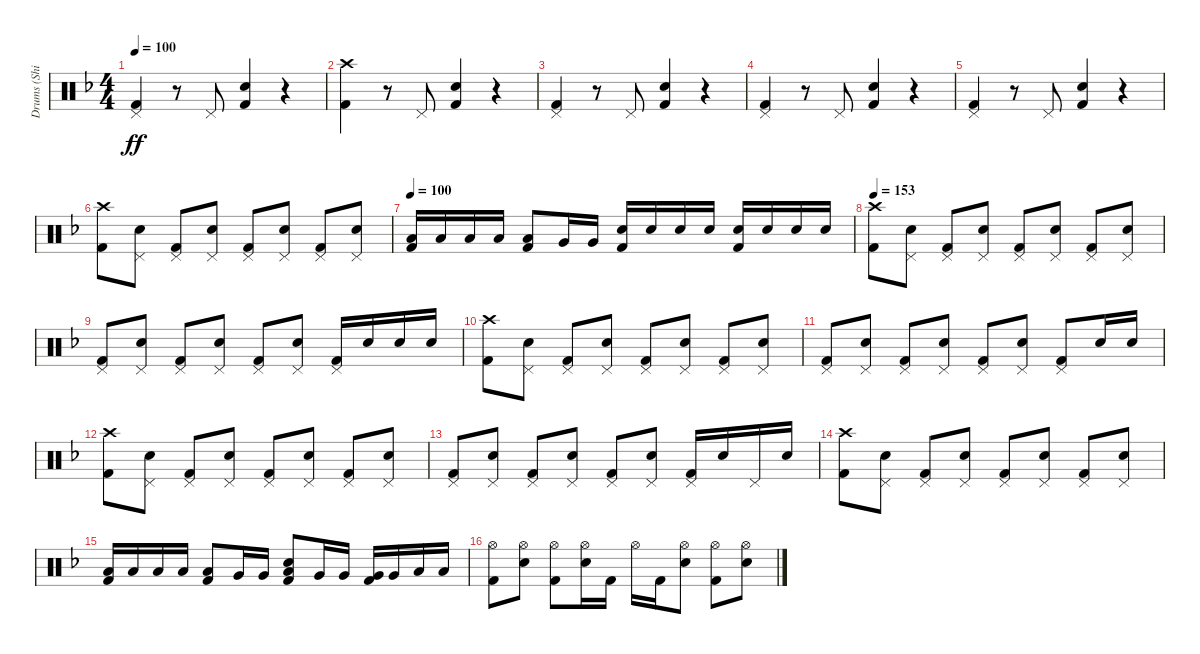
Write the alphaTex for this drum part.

\track ("Drums (Shinya ! Shinya !)" "Drums (Shi") {instrument percussion}
\staff {score}
\articulation defaults
\ts (4 4)
\tempo 100
\clef neutral
\ks f
("Kick (hit) 2" "Pedal Hi-Hat (hit)").4{dy ff} r.8 "Pedal Hi-Hat (hit)".8 ("Kick (hit) 2" "Electric Snare (hit)").4 r.4 |
("Kick (hit) 2" "Crash high (hit)").4 r.8 "Pedal Hi-Hat (hit)".8 ("Kick (hit) 2" "Electric Snare (hit)").4 r.4 |
("Kick (hit) 2" "Pedal Hi-Hat (hit)").4 r.8 "Pedal Hi-Hat (hit)".8 ("Kick (hit) 2" "Electric Snare (hit)").4 r.4 |
("Kick (hit) 2" "Pedal Hi-Hat (hit)").4 r.8 "Pedal Hi-Hat (hit)".8 ("Kick (hit) 2" "Electric Snare (hit)").4 r.4 |
("Kick (hit) 2" "Pedal Hi-Hat (hit)").4 r.8 "Pedal Hi-Hat (hit)".8 ("Kick (hit) 2" "Electric Snare (hit)").4 r.4 |
("Crash high (hit)" "Kick (hit) 2").8 ("Pedal Hi-Hat (hit)" "Electric Snare (hit)").8 ("Pedal Hi-Hat (hit)" "Kick (hit) 2").8 ("Pedal Hi-Hat (hit)" "Electric Snare (hit)").8 ("Pedal Hi-Hat (hit)" "Kick (hit) 2").8 ("Pedal Hi-Hat (hit)" "Electric Snare (hit)").8 ("Pedal Hi-Hat (hit)" "Kick (hit) 2").8 ("Pedal Hi-Hat (hit)" "Electric Snare (hit)").8 |
\tempo 100
("Low Tom (hit)" "Kick (hit) 2").16 "Low Tom (hit)".16 "Low Tom (hit)".16 "Low Tom (hit)".16 ("Low Tom (hit)" "Kick (hit) 2").8 "Very Low Tom (hit)".16 "Very Low Tom (hit)".16 ("Kick (hit) 2" "Electric Snare (hit)").16 "Electric Snare (hit)".16 "Electric Snare (hit)".16 "Electric Snare (hit)".16 ("Kick (hit) 2" "Electric Snare (hit)").16 "Electric Snare (hit)".16 "Electric Snare (hit)".16 "Electric Snare (hit)".16 |
\tempo 153
("Crash high (hit)" "Kick (hit) 2").8 ("Pedal Hi-Hat (hit)" "Electric Snare (hit)").8 ("Pedal Hi-Hat (hit)" "Kick (hit) 2").8 ("Pedal Hi-Hat (hit)" "Electric Snare (hit)").8 ("Pedal Hi-Hat (hit)" "Kick (hit) 2").8 ("Pedal Hi-Hat (hit)" "Electric Snare (hit)").8 ("Pedal Hi-Hat (hit)" "Kick (hit) 2").8 ("Pedal Hi-Hat (hit)" "Electric Snare (hit)").8 |
("Pedal Hi-Hat (hit)" "Kick (hit) 2").8 ("Pedal Hi-Hat (hit)" "Electric Snare (hit)").8 ("Pedal Hi-Hat (hit)" "Kick (hit) 2").8 ("Pedal Hi-Hat (hit)" "Electric Snare (hit)").8 ("Pedal Hi-Hat (hit)" "Kick (hit) 2").8 ("Pedal Hi-Hat (hit)" "Electric Snare (hit)").8 ("Pedal Hi-Hat (hit)" "Kick (hit) 2").16 "Electric Snare (hit)".16 "Electric Snare (hit)".16 "Electric Snare (hit)".16 |
("Crash high (hit)" "Kick (hit) 2").8 ("Pedal Hi-Hat (hit)" "Electric Snare (hit)").8 ("Pedal Hi-Hat (hit)" "Kick (hit) 2").8 ("Pedal Hi-Hat (hit)" "Electric Snare (hit)").8 ("Pedal Hi-Hat (hit)" "Kick (hit) 2").8 ("Pedal Hi-Hat (hit)" "Electric Snare (hit)").8 ("Pedal Hi-Hat (hit)" "Kick (hit) 2").8 ("Pedal Hi-Hat (hit)" "Electric Snare (hit)").8 |
("Pedal Hi-Hat (hit)" "Kick (hit) 2").8 ("Pedal Hi-Hat (hit)" "Electric Snare (hit)").8 ("Pedal Hi-Hat (hit)" "Kick (hit) 2").8 ("Pedal Hi-Hat (hit)" "Electric Snare (hit)").8 ("Pedal Hi-Hat (hit)" "Kick (hit) 2").8 ("Pedal Hi-Hat (hit)" "Electric Snare (hit)").8 ("Pedal Hi-Hat (hit)" "Kick (hit) 2").8 "Electric Snare (hit)".16 "Electric Snare (hit)".16 |
("Crash high (hit)" "Kick (hit) 2").8 ("Pedal Hi-Hat (hit)" "Electric Snare (hit)").8 ("Pedal Hi-Hat (hit)" "Kick (hit) 2").8 ("Pedal Hi-Hat (hit)" "Electric Snare (hit)").8 ("Pedal Hi-Hat (hit)" "Kick (hit) 2").8 ("Pedal Hi-Hat (hit)" "Electric Snare (hit)").8 ("Pedal Hi-Hat (hit)" "Kick (hit) 2").8 ("Pedal Hi-Hat (hit)" "Electric Snare (hit)").8 |
("Pedal Hi-Hat (hit)" "Kick (hit) 2").8 ("Pedal Hi-Hat (hit)" "Electric Snare (hit)").8 ("Pedal Hi-Hat (hit)" "Kick (hit) 2").8 ("Pedal Hi-Hat (hit)" "Electric Snare (hit)").8 ("Pedal Hi-Hat (hit)" "Kick (hit) 2").8 ("Pedal Hi-Hat (hit)" "Electric Snare (hit)").8 ("Pedal Hi-Hat (hit)" "Kick (hit) 2").16 "Electric Snare (hit)".16 "Pedal Hi-Hat (hit)".16 "Electric Snare (hit)".16 |
("Crash high (hit)" "Kick (hit) 2").8 ("Pedal Hi-Hat (hit)" "Electric Snare (hit)").8 ("Pedal Hi-Hat (hit)" "Kick (hit) 2").8 ("Pedal Hi-Hat (hit)" "Electric Snare (hit)").8 ("Pedal Hi-Hat (hit)" "Kick (hit) 2").8 ("Pedal Hi-Hat (hit)" "Electric Snare (hit)").8 ("Pedal Hi-Hat (hit)" "Kick (hit) 2").8 ("Pedal Hi-Hat (hit)" "Electric Snare (hit)").8 |
("Low Tom (hit)" "Kick (hit) 2").16 "Low Tom (hit)".16 "Low Tom (hit)".16 "Low Tom (hit)".16 ("Low Tom (hit)" "Kick (hit) 2").8 "Very Low Tom (hit)".16 "Very Low Tom (hit)".16 ("Electric Snare (hit)" "Low Tom (hit)" "Kick (hit) 2").8 "Very Low Tom (hit)".16 "Very Low Tom (hit)".16 ("Very Low Tom (hit)" "Kick (hit) 2").16 "Very Low Tom (hit)".16 "Low Floor Tom (hit)".16 "Low Floor Tom (hit)".16 |
("Kick (hit) 2" "Hi-Hat (open)").8 ("Electric Snare (hit)" "Hi-Hat (open)").8 ("Kick (hit) 2" "Hi-Hat (open)").8 ("Electric Snare (hit)" "Hi-Hat (open)").16 "Kick (hit) 2".16 "Hi-Hat (open)".16 "Kick (hit) 2".16 ("Electric Snare (hit)" "Hi-Hat (open)").8 ("Kick (hit) 2" "Hi-Hat (open)").8 ("Electric Snare (hit)" "Hi-Hat (open)").8
